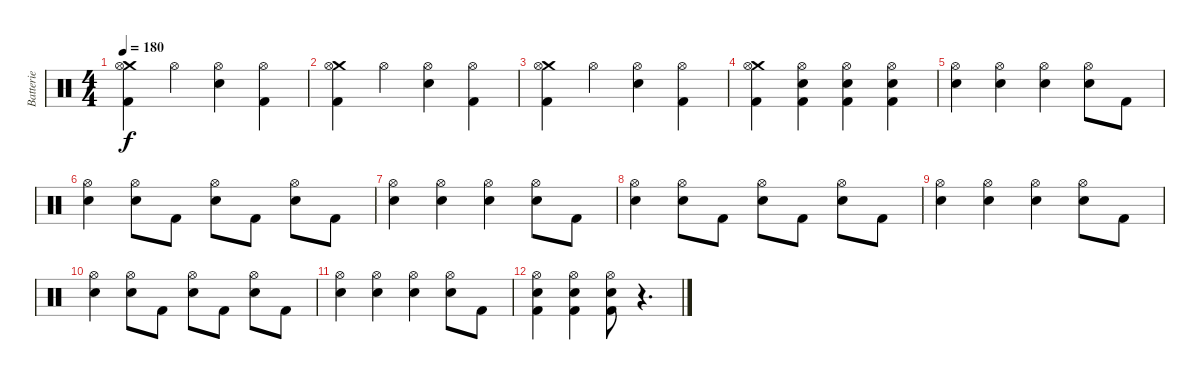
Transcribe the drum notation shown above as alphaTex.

\track ("Batterie" "Batterie") {instrument percussion}
\staff {score}
\articulation defaults
\ts (4 4)
\tempo 180
\clef neutral
\ks c
("Crash medium (hit)" "Hi-Hat (open)" "Kick (hit) 2").4{dy f} "Hi-Hat (open)".4 ("Electric Snare (hit)" "Hi-Hat (open)").4 ("Hi-Hat (open)" "Kick (hit) 2").4 |
("Crash medium (hit)" "Hi-Hat (open)" "Kick (hit) 2").4 "Hi-Hat (open)".4 ("Electric Snare (hit)" "Hi-Hat (open)").4 ("Hi-Hat (open)" "Kick (hit) 2").4 |
("Crash medium (hit)" "Hi-Hat (open)" "Kick (hit) 2").4 "Hi-Hat (open)".4 ("Electric Snare (hit)" "Hi-Hat (open)").4 ("Hi-Hat (open)" "Kick (hit) 2").4 |
("Crash medium (hit)" "Hi-Hat (open)" "Kick (hit) 2").4 ("Electric Snare (hit)" "Hi-Hat (open)" "Kick (hit) 2").4 ("Electric Snare (hit)" "Hi-Hat (open)" "Kick (hit) 2").4 ("Electric Snare (hit)" "Hi-Hat (open)" "Kick (hit) 2").4 |
("Electric Snare (hit)" "Hi-Hat (open)").4 ("Electric Snare (hit)" "Hi-Hat (open)").4 ("Electric Snare (hit)" "Hi-Hat (open)").4 ("Electric Snare (hit)" "Hi-Hat (open)").8 "Kick (hit) 2".8 |
("Electric Snare (hit)" "Hi-Hat (open)").4 ("Electric Snare (hit)" "Hi-Hat (open)").8 "Kick (hit) 2".8 ("Electric Snare (hit)" "Hi-Hat (open)").8 "Kick (hit) 2".8 ("Electric Snare (hit)" "Hi-Hat (open)").8 "Kick (hit) 2".8 |
("Electric Snare (hit)" "Hi-Hat (open)").4 ("Electric Snare (hit)" "Hi-Hat (open)").4 ("Electric Snare (hit)" "Hi-Hat (open)").4 ("Electric Snare (hit)" "Hi-Hat (open)").8 "Kick (hit) 2".8 |
("Electric Snare (hit)" "Hi-Hat (open)").4 ("Electric Snare (hit)" "Hi-Hat (open)").8 "Kick (hit) 2".8 ("Electric Snare (hit)" "Hi-Hat (open)").8 "Kick (hit) 2".8 ("Electric Snare (hit)" "Hi-Hat (open)").8 "Kick (hit) 2".8 |
("Electric Snare (hit)" "Hi-Hat (open)").4 ("Electric Snare (hit)" "Hi-Hat (open)").4 ("Electric Snare (hit)" "Hi-Hat (open)").4 ("Electric Snare (hit)" "Hi-Hat (open)").8 "Kick (hit) 2".8 |
("Electric Snare (hit)" "Hi-Hat (open)").4 ("Electric Snare (hit)" "Hi-Hat (open)").8 "Kick (hit) 2".8 ("Electric Snare (hit)" "Hi-Hat (open)").8 "Kick (hit) 2".8 ("Electric Snare (hit)" "Hi-Hat (open)").8 "Kick (hit) 2".8 |
("Electric Snare (hit)" "Hi-Hat (open)").4 ("Electric Snare (hit)" "Hi-Hat (open)").4 ("Electric Snare (hit)" "Hi-Hat (open)").4 ("Electric Snare (hit)" "Hi-Hat (open)").8 "Kick (hit) 2".8 |
("Electric Snare (hit)" "Hi-Hat (open)" "Kick (hit) 2").4 ("Electric Snare (hit)" "Hi-Hat (open)" "Kick (hit) 2").4 ("Electric Snare (hit)" "Hi-Hat (open)" "Kick (hit) 2").8 r.4{d}
